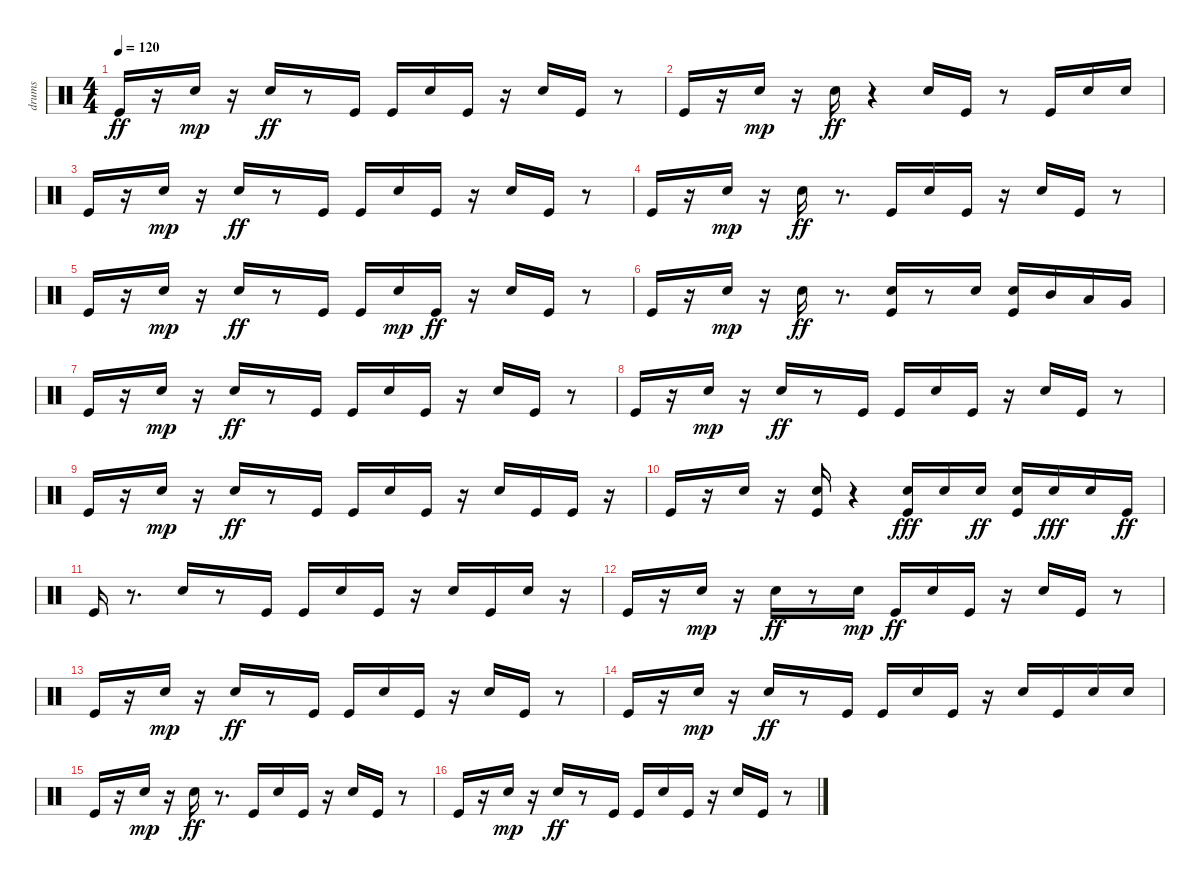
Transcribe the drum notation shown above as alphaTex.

\track ("drums" "drums") {instrument percussion}
\staff {score}
\articulation defaults
\ts (4 4)
\tempo 120
\clef neutral
\ks c "Kick (hit)".16{dy ff}
r.16 "Electric Snare (hit)".16{dy mp} r.16 "Electric Snare (hit)".16{dy ff} r.8 "Kick (hit)".16 "Kick (hit)".16 "Electric Snare (hit)".16 "Kick (hit)".16 r.16 "Electric Snare (hit)".16 "Kick (hit)".16 r.8 |
"Kick (hit)".16 r.16 "Electric Snare (hit)".16{dy mp} r.16 "Electric Snare (hit)".16{dy ff} r.4 "Electric Snare (hit)".16 "Kick (hit)".16 r.8 "Kick (hit)".16 "Electric Snare (hit)".16 "Electric Snare (hit)".16 |
"Kick (hit)".16 r.16 "Electric Snare (hit)".16{dy mp} r.16 "Electric Snare (hit)".16{dy ff} r.8 "Kick (hit)".16 "Kick (hit)".16 "Electric Snare (hit)".16 "Kick (hit)".16 r.16 "Electric Snare (hit)".16 "Kick (hit)".16 r.8 |
"Kick (hit)".16 r.16 "Electric Snare (hit)".16{dy mp} r.16 "Electric Snare (hit)".16{dy ff} r.8{d} "Kick (hit)".16 "Electric Snare (hit)".16 "Kick (hit)".16 r.16 "Electric Snare (hit)".16 "Kick (hit)".16 r.8 |
"Kick (hit)".16 r.16 "Electric Snare (hit)".16{dy mp} r.16 "Electric Snare (hit)".16{dy ff} r.8 "Kick (hit)".16 "Kick (hit)".16 "Electric Snare (hit)".16{dy mp} "Kick (hit)".16{dy ff} r.16 "Electric Snare (hit)".16 "Kick (hit)".16 r.8 |
"Kick (hit)".16 r.16 "Electric Snare (hit)".16{dy mp} r.16 "Electric Snare (hit)".16{dy ff} r.8{d} ("Electric Snare (hit)" "Kick (hit)").16 r.8 "Electric Snare (hit)".16 ("Kick (hit)" "Electric Snare (hit)").16 "Mid Tom (hit)".16 "Low Tom (hit)".16 "Very Low Tom (hit)".16 |
"Kick (hit)".16 r.16 "Electric Snare (hit)".16{dy mp} r.16 "Electric Snare (hit)".16{dy ff} r.8 "Kick (hit)".16 "Kick (hit)".16 "Electric Snare (hit)".16 "Kick (hit)".16 r.16 "Electric Snare (hit)".16 "Kick (hit)".16 r.8 |
"Kick (hit)".16 r.16 "Electric Snare (hit)".16{dy mp} r.16 "Electric Snare (hit)".16{dy ff} r.8 "Kick (hit)".16 "Kick (hit)".16 "Electric Snare (hit)".16 "Kick (hit)".16 r.16 "Electric Snare (hit)".16 "Kick (hit)".16 r.8 |
"Kick (hit)".16 r.16 "Electric Snare (hit)".16{dy mp} r.16 "Electric Snare (hit)".16{dy ff} r.8 "Kick (hit)".16 "Kick (hit)".16 "Electric Snare (hit)".16 "Kick (hit)".16 r.16 "Electric Snare (hit)".16 "Kick (hit)".16 "Kick (hit)".16 r.16 |
"Kick (hit)".16 r.16 "Electric Snare (hit)".16 r.16 ("Electric Snare (hit)" "Kick (hit)").16 r.4 ("Kick (hit)" "Electric Snare (hit)").16{dy fff} "Electric Snare (hit)".16 "Electric Snare (hit)".16{dy ff} ("Kick (hit)" "Electric Snare (hit)").16 "Electric Snare (hit)".16{dy fff} "Electric Snare (hit)".16 "Kick (hit)".16{dy ff} |
"Kick (hit)".16 r.8{d} "Electric Snare (hit)".16 r.8 "Kick (hit)".16 "Kick (hit)".16 "Electric Snare (hit)".16 "Kick (hit)".16 r.16 "Electric Snare (hit)".16 "Kick (hit)".16 "Electric Snare (hit)".16 r.16 |
"Kick (hit)".16 r.16 "Electric Snare (hit)".16{dy mp} r.16 "Electric Snare (hit)".16{dy ff} r.8 "Electric Snare (hit)".16{dy mp} "Kick (hit)".16{dy ff} "Electric Snare (hit)".16 "Kick (hit)".16 r.16 "Electric Snare (hit)".16 "Kick (hit)".16 r.8 |
"Kick (hit)".16 r.16 "Electric Snare (hit)".16{dy mp} r.16 "Electric Snare (hit)".16{dy ff} r.8 "Kick (hit)".16 "Kick (hit)".16 "Electric Snare (hit)".16 "Kick (hit)".16 r.16 "Electric Snare (hit)".16 "Kick (hit)".16 r.8 |
"Kick (hit)".16 r.16 "Electric Snare (hit)".16{dy mp} r.16 "Electric Snare (hit)".16{dy ff} r.8 "Kick (hit)".16 "Kick (hit)".16 "Electric Snare (hit)".16 "Kick (hit)".16 r.16 "Electric Snare (hit)".16 "Kick (hit)".16 "Electric Snare (hit)".16 "Electric Snare (hit)".16 |
"Kick (hit)".16 r.16 "Electric Snare (hit)".16{dy mp} r.16 "Electric Snare (hit)".16{dy ff} r.8{d} "Kick (hit)".16 "Electric Snare (hit)".16 "Kick (hit)".16 r.16 "Electric Snare (hit)".16 "Kick (hit)".16 r.8 |
"Kick (hit)".16 r.16 "Electric Snare (hit)".16{dy mp} r.16 "Electric Snare (hit)".16{dy ff} r.8 "Kick (hit)".16 "Kick (hit)".16 "Electric Snare (hit)".16 "Kick (hit)".16 r.16 "Electric Snare (hit)".16 "Kick (hit)".16 r.8
